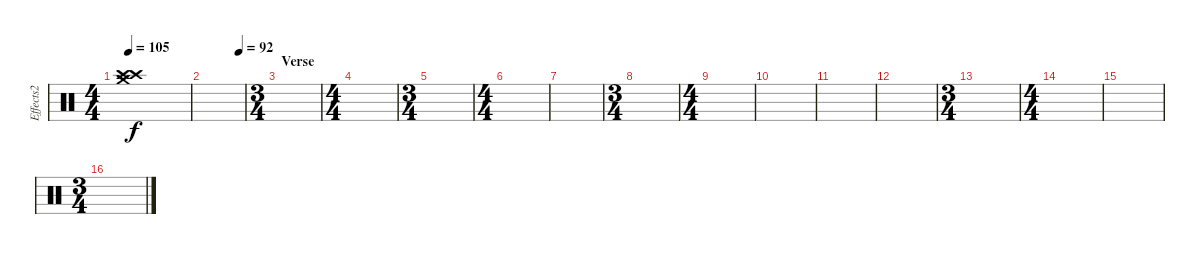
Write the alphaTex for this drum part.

\track ("Effects2" "Effects2") {instrument percussion}
\staff {score}
\articulation defaults
\ts (4 4)
\tempo 105
\clef neutral
\ks c
("Crash high (hit)" "Crash medium (hit)" "Crash high (hit)").1{dy f} |
\tempo (92 0.875)
|
\ts (3 4)
\section ("" "Verse")
|
\ts (4 4)
|
\ts (3 4)
|
\ts (4 4)
|
|
\ts (3 4)
|
\ts (4 4)
|
|
|
|
\ts (3 4)
|
\ts (4 4)
|
|
\ts (3 4)
